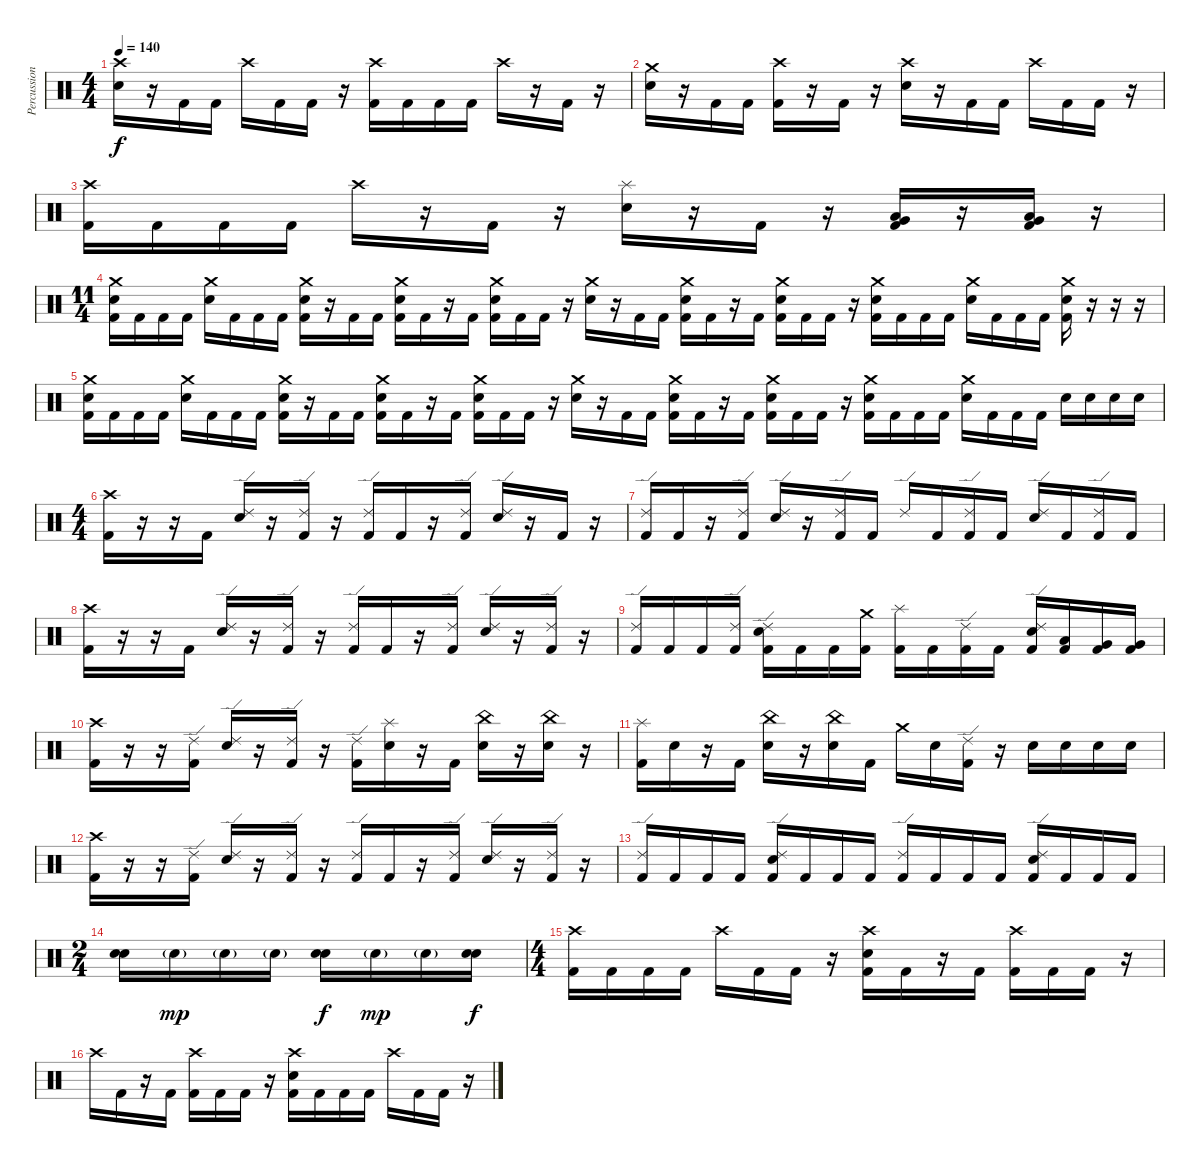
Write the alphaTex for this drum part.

\track ("Percussion" "Percussion") {instrument percussion}
\staff {score}
\articulation defaults
\ts (4 4)
\tempo 140
\clef neutral
\ks c
("Crash high (hit)" "Electric Snare (hit)").16{dy f} r.16 "Kick (hit) 2".16 "Kick (hit) 2".16 "Crash high (hit)".16 "Kick (hit) 2".16 "Kick (hit) 2".16 r.16 ("Crash high (hit)" "Kick (hit) 2").16 "Kick (hit) 2".16 "Kick (hit) 2".16 "Kick (hit) 2".16 "Crash high (hit)".16 r.16 "Kick (hit) 2".16 r.16 |
("Crash medium (hit)" "Electric Snare (hit)").16 r.16 "Kick (hit) 2".16 "Kick (hit) 2".16 ("Crash high (hit)" "Kick (hit) 2").16 r.16 "Kick (hit) 2".16 r.16 ("Crash high (hit)" "Electric Snare (hit)").16 r.16 "Kick (hit) 2".16 "Kick (hit) 2".16 "Crash high (hit)".16 "Kick (hit) 2".16 "Kick (hit) 2".16 r.16 |
("Crash high (hit)" "Kick (hit) 2").16 "Kick (hit) 2".16 "Kick (hit) 2".16 "Kick (hit) 2".16 "Crash high (hit)".16 r.16 "Kick (hit) 2".16 r.16 ("Splash (hit)" "Electric Snare (hit)").16 r.16 "Kick (hit) 2".16 r.16 ("Low Tom (hit)" "Very Low Tom (hit)" "Kick (hit) 2").16 r.16 ("Very Low Tom (hit)" "Low Floor Tom (hit)" "Kick (hit) 2").16 r.16 |
\ts (11 4)
("Crash medium (hit)" "Electric Snare (hit)" "Kick (hit) 2").16 "Kick (hit) 2".16 "Kick (hit) 2".16 "Kick (hit) 2".16 ("Crash medium (hit)" "Electric Snare (hit)").16 "Kick (hit) 2".16 "Kick (hit) 2".16 "Kick (hit) 2".16 ("Crash medium (hit)" "Electric Snare (hit)" "Kick (hit) 2").16 r.16 "Kick (hit) 2".16 "Kick (hit) 2".16 ("Crash medium (hit)" "Electric Snare (hit)" "Kick (hit) 2").16 "Kick (hit) 2".16 r.16 "Kick (hit) 2".16 ("Crash medium (hit)" "Electric Snare (hit)" "Kick (hit) 2").16 "Kick (hit) 2".16 "Kick (hit) 2".16 r.16 ("Crash medium (hit)" "Electric Snare (hit)").16 r.16 "Kick (hit) 2".16 "Kick (hit) 2".16 ("Crash medium (hit)" "Electric Snare (hit)" "Kick (hit) 2").16 "Kick (hit) 2".16 r.16 "Kick (hit) 2".16 ("Crash medium (hit)" "Electric Snare (hit)" "Kick (hit) 2").16 "Kick (hit) 2".16 "Kick (hit) 2".16 r.16 ("Crash medium (hit)" "Electric Snare (hit)" "Kick (hit) 2").16 "Kick (hit) 2".16 "Kick (hit) 2".16 "Kick (hit) 2".16 ("Crash medium (hit)" "Electric Snare (hit)").16 "Kick (hit) 2".16 "Kick (hit) 2".16 "Kick (hit) 2".16 ("Crash medium (hit)" "Electric Snare (hit)" "Kick (hit) 2").16 r.16 r.16 r.16 |
("Crash medium (hit)" "Electric Snare (hit)" "Kick (hit) 2").16 "Kick (hit) 2".16 "Kick (hit) 2".16 "Kick (hit) 2".16 ("Crash medium (hit)" "Electric Snare (hit)").16 "Kick (hit) 2".16 "Kick (hit) 2".16 "Kick (hit) 2".16 ("Crash medium (hit)" "Electric Snare (hit)" "Kick (hit) 2").16 r.16 "Kick (hit) 2".16 "Kick (hit) 2".16 ("Crash medium (hit)" "Electric Snare (hit)" "Kick (hit) 2").16 "Kick (hit) 2".16 r.16 "Kick (hit) 2".16 ("Crash medium (hit)" "Electric Snare (hit)" "Kick (hit) 2").16 "Kick (hit) 2".16 "Kick (hit) 2".16 r.16 ("Crash medium (hit)" "Electric Snare (hit)").16 r.16 "Kick (hit) 2".16 "Kick (hit) 2".16 ("Crash medium (hit)" "Electric Snare (hit)" "Kick (hit) 2").16 "Kick (hit) 2".16 r.16 "Kick (hit) 2".16 ("Crash medium (hit)" "Electric Snare (hit)" "Kick (hit) 2").16 "Kick (hit) 2".16 "Kick (hit) 2".16 r.16 ("Crash medium (hit)" "Electric Snare (hit)" "Kick (hit) 2").16 "Kick (hit) 2".16 "Kick (hit) 2".16 "Kick (hit) 2".16 ("Crash medium (hit)" "Electric Snare (hit)").16 "Kick (hit) 2".16 "Kick (hit) 2".16 "Kick (hit) 2".16 "Electric Snare (hit)".16 "Electric Snare (hit)".16 "Electric Snare (hit)".16 "Electric Snare (hit)".16 |
\ts (4 4)
("Crash high (hit)" "Kick (hit) 2").16 r.16 r.16 "Kick (hit) 2".16 ("Ride (edge) 2" "Electric Snare (hit)").16 r.16 ("Ride (edge) 2" "Kick (hit) 2").16 r.16 ("Ride (edge) 2" "Kick (hit) 2").16 "Kick (hit) 2".16 r.16 ("Ride (edge) 2" "Kick (hit) 2").16 ("Ride (edge) 2" "Electric Snare (hit)").16 r.16 "Kick (hit) 2".16 r.16 |
("Ride (edge) 2" "Kick (hit) 2").16 "Kick (hit) 2".16 r.16 ("Ride (edge) 2" "Kick (hit) 2").16 ("Ride (edge) 2" "Electric Snare (hit)").16 r.16 ("Ride (edge) 2" "Kick (hit) 2").16 "Kick (hit) 2".16 "Ride (edge) 2".16 "Kick (hit) 2".16 ("Ride (edge) 2" "Kick (hit) 2").16 "Kick (hit) 2".16 ("Ride (edge) 2" "Electric Snare (hit)").16 "Kick (hit) 2".16 ("Ride (edge) 2" "Kick (hit) 2").16 "Kick (hit) 2".16 |
("Crash high (hit)" "Kick (hit) 2").16 r.16 r.16 "Kick (hit) 2".16 ("Ride (edge) 2" "Electric Snare (hit)").16 r.16 ("Ride (edge) 2" "Kick (hit) 2").16 r.16 ("Ride (edge) 2" "Kick (hit) 2").16 "Kick (hit) 2".16 r.16 ("Ride (edge) 2" "Kick (hit) 2").16 ("Ride (edge) 2" "Electric Snare (hit)").16 r.16 ("Ride (edge) 2" "Kick (hit) 2").16 r.16 |
("Ride (edge) 2" "Kick (hit) 2").16 "Kick (hit) 2".16 "Kick (hit) 2".16 ("Ride (edge) 2" "Kick (hit) 2").16 ("Ride (edge) 2" "Electric Snare (hit)" "Kick (hit) 2").16 "Kick (hit) 2".16 "Kick (hit) 2".16 ("Crash medium (hit)" "Kick (hit) 2").16 ("Splash (hit)" "Kick (hit) 2").16 "Kick (hit) 2".16 ("Ride (edge) 2" "Kick (hit) 2").16 "Kick (hit) 2".16 ("Ride (edge) 2" "Electric Snare (hit)" "Kick (hit) 2").16 ("Low Tom (hit)" "Kick (hit) 2").16 ("Very Low Tom (hit)" "Kick (hit) 2").16 ("Very Low Tom (hit)" "Kick (hit) 2").16 |
("Crash high (hit)" "Kick (hit) 2").16 r.16 r.16 ("Ride (edge) 2" "Kick (hit) 2").16 ("Ride (edge) 2" "Electric Snare (hit)").16 r.16 ("Ride (edge) 2" "Kick (hit) 2").16 r.16 ("Ride (edge) 2" "Kick (hit) 2").16 ("Splash (hit)" "Electric Snare (hit)").16 r.16 "Kick (hit) 2".16 ("China (hit)" "Electric Snare (hit)").16 r.16 ("China (hit)" "Electric Snare (hit)").16 r.16 |
("Splash (hit)" "Kick (hit) 2").16 "Electric Snare (hit)".16 r.16 "Kick (hit) 2".16 ("China (hit)" "Electric Snare (hit)").16 r.16 ("China (hit)" "Electric Snare (hit)").16 "Kick (hit) 2".16 "Crash medium (hit)".16 "Electric Snare (hit)".16 ("Ride (edge) 2" "Kick (hit) 2").16 r.16 "Electric Snare (hit)".16 "Electric Snare (hit)".16 "Electric Snare (hit)".16 "Electric Snare (hit)".16 |
("Crash high (hit)" "Kick (hit) 2").16 r.16 r.16 ("Ride (edge) 2" "Kick (hit) 2").16 ("Ride (edge) 2" "Electric Snare (hit)").16 r.16 ("Ride (edge) 2" "Kick (hit) 2").16 r.16 ("Ride (edge) 2" "Kick (hit) 2").16 "Kick (hit) 2".16 r.16 ("Ride (edge) 2" "Kick (hit) 2").16 ("Ride (edge) 2" "Electric Snare (hit)").16 r.16 ("Ride (edge) 2" "Kick (hit) 2").16 r.16 |
("Ride (edge) 2" "Kick (hit) 2").16 "Kick (hit) 2".16 "Kick (hit) 2".16 "Kick (hit) 2".16 ("Ride (edge) 2" "Electric Snare (hit)" "Kick (hit) 2").16 "Kick (hit) 2".16 "Kick (hit) 2".16 "Kick (hit) 2".16 ("Ride (edge) 2" "Kick (hit) 2").16 "Kick (hit) 2".16 "Kick (hit) 2".16 "Kick (hit) 2".16 ("Ride (edge) 2" "Electric Snare (hit)" "Kick (hit) 2").16 "Kick (hit) 2".16 "Kick (hit) 2".16 "Kick (hit) 2".16 |
\ts (2 4)
("Electric Snare (hit)" "Snare (hit) 2").16 "Snare (hit) 2"{g}.16{dy mp} "Snare (hit) 2"{g}.16 "Snare (hit) 2"{g}.16 ("Electric Snare (hit)" "Snare (hit) 2").16{dy f} "Snare (hit) 2"{g}.16{dy mp} "Snare (hit) 2"{g}.16 ("Electric Snare (hit)" "Snare (hit) 2").16{dy f} |
\ts (4 4)
("Crash high (hit)" "Kick (hit) 2").16 "Kick (hit) 2".16 "Kick (hit) 2".16 "Kick (hit) 2".16 "Crash high (hit)".16 "Kick (hit) 2".16 "Kick (hit) 2".16 r.16 ("Crash high (hit)" "Electric Snare (hit)" "Kick (hit) 2").16 "Kick (hit) 2".16 r.16 "Kick (hit) 2".16 ("Crash high (hit)" "Kick (hit) 2").16 "Kick (hit) 2".16 "Kick (hit) 2".16 r.16 |
"Crash high (hit)".16 "Kick (hit) 2".16 r.16 "Kick (hit) 2".16 ("Crash high (hit)" "Kick (hit) 2").16 "Kick (hit) 2".16 "Kick (hit) 2".16 r.16 ("Crash high (hit)" "Electric Snare (hit)" "Kick (hit) 2").16 "Kick (hit) 2".16 "Kick (hit) 2".16 "Kick (hit) 2".16 "Crash high (hit)".16 "Kick (hit) 2".16 "Kick (hit) 2".16 r.16
